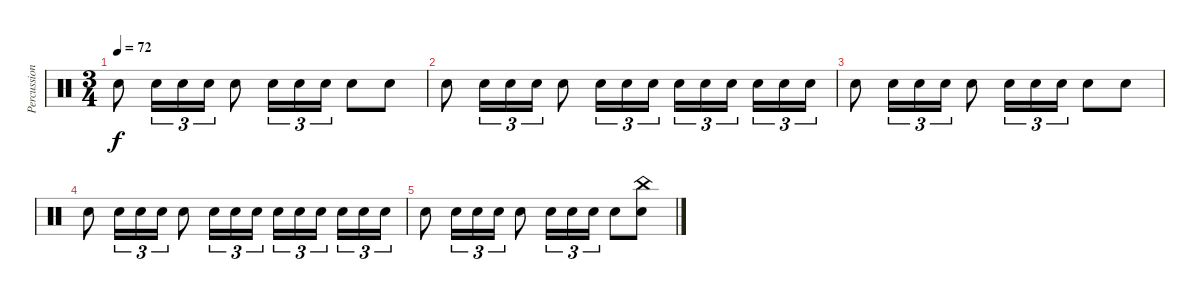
\track ("Percussion" "Percussion") {instrument percussion}
\staff {score}
\articulation defaults
\ts (3 4)
\tempo 72
\clef neutral
\ks c "Snare (hit) 2".8{dy f} "Snare (hit) 2".16{tu (3 2)} "Snare (hit) 2".16{tu (3 2)} "Snare (hit) 2".16{tu (3 2)} "Snare (hit) 2".8 "Snare (hit) 2".16{tu (3 2)} "Snare (hit) 2".16{tu (3 2)} "Snare (hit) 2".16{tu (3 2)} "Snare (hit) 2".8 "Snare (hit) 2".8
|
"Snare (hit) 2".8 "Snare (hit) 2".16{tu (3 2)} "Snare (hit) 2".16{tu (3 2)} "Snare (hit) 2".16{tu (3 2)} "Snare (hit) 2".8 "Snare (hit) 2".16{tu (3 2)} "Snare (hit) 2".16{tu (3 2)} "Snare (hit) 2".16{tu (3 2)} "Snare (hit) 2".16{tu (3 2)} "Snare (hit) 2".16{tu (3 2)} "Snare (hit) 2".16{tu (3 2) beam splitsecondary} "Snare (hit) 2".16{tu (3 2)} "Snare (hit) 2".16{tu (3 2)} "Snare (hit) 2".16{tu (3 2)} |
"Snare (hit) 2".8 "Snare (hit) 2".16{tu (3 2)} "Snare (hit) 2".16{tu (3 2)} "Snare (hit) 2".16{tu (3 2)} "Snare (hit) 2".8 "Snare (hit) 2".16{tu (3 2)} "Snare (hit) 2".16{tu (3 2)} "Snare (hit) 2".16{tu (3 2)} "Snare (hit) 2".8 "Snare (hit) 2".8 |
"Snare (hit) 2".8 "Snare (hit) 2".16{tu (3 2)} "Snare (hit) 2".16{tu (3 2)} "Snare (hit) 2".16{tu (3 2)} "Snare (hit) 2".8 "Snare (hit) 2".16{tu (3 2)} "Snare (hit) 2".16{tu (3 2)} "Snare (hit) 2".16{tu (3 2)} "Snare (hit) 2".16{tu (3 2)} "Snare (hit) 2".16{tu (3 2)} "Snare (hit) 2".16{tu (3 2) beam splitsecondary} "Snare (hit) 2".16{tu (3 2)} "Snare (hit) 2".16{tu (3 2)} "Snare (hit) 2".16{tu (3 2)} |
"Snare (hit) 2".8 "Snare (hit) 2".16{tu (3 2)} "Snare (hit) 2".16{tu (3 2)} "Snare (hit) 2".16{tu (3 2)} "Snare (hit) 2".8 "Snare (hit) 2".16{tu (3 2)} "Snare (hit) 2".16{tu (3 2)} "Snare (hit) 2".16{tu (3 2)} "Snare (hit) 2".8 ("Snare (hit) 2" "China (hit)").8
